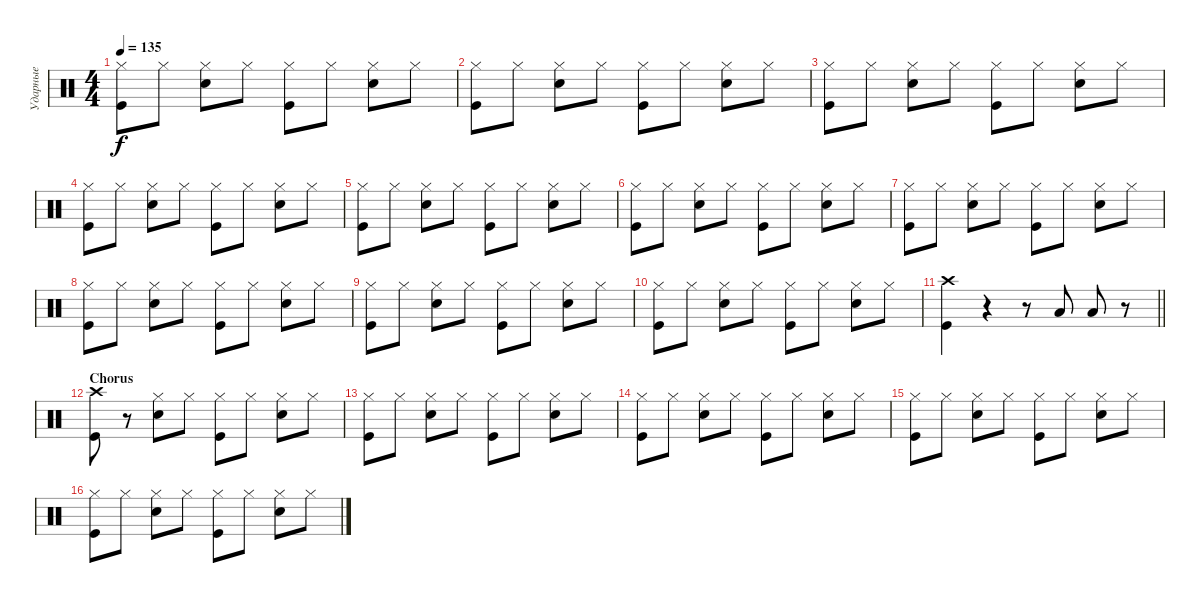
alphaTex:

\track ("Ударные" "Ударные") {instrument percussion}
\staff {score}
\articulation defaults
\ts (4 4)
\tempo 135
\clef neutral
\ks c
("Hi-Hat (closed)" "Kick (hit)").8{dy f} "Hi-Hat (closed)".8 ("Hi-Hat (closed)" "Snare (hit) 2").8 "Hi-Hat (closed)".8 ("Hi-Hat (closed)" "Kick (hit)").8 "Hi-Hat (closed)".8 ("Hi-Hat (closed)" "Snare (hit) 2").8 "Hi-Hat (closed)".8 |
("Hi-Hat (closed)" "Kick (hit)").8 "Hi-Hat (closed)".8 ("Hi-Hat (closed)" "Snare (hit) 2").8 "Hi-Hat (closed)".8 ("Hi-Hat (closed)" "Kick (hit)").8 "Hi-Hat (closed)".8 ("Hi-Hat (closed)" "Snare (hit) 2").8 "Hi-Hat (closed)".8 |
("Hi-Hat (closed)" "Kick (hit)").8 "Hi-Hat (closed)".8 ("Hi-Hat (closed)" "Snare (hit) 2").8 "Hi-Hat (closed)".8 ("Hi-Hat (closed)" "Kick (hit)").8 "Hi-Hat (closed)".8 ("Hi-Hat (closed)" "Snare (hit) 2").8 "Hi-Hat (closed)".8 |
("Hi-Hat (closed)" "Kick (hit)").8 "Hi-Hat (closed)".8 ("Hi-Hat (closed)" "Snare (hit) 2").8 "Hi-Hat (closed)".8 ("Hi-Hat (closed)" "Kick (hit)").8 "Hi-Hat (closed)".8 ("Hi-Hat (closed)" "Snare (hit) 2").8 "Hi-Hat (closed)".8 |
("Hi-Hat (closed)" "Kick (hit)").8 "Hi-Hat (closed)".8 ("Hi-Hat (closed)" "Snare (hit) 2").8 "Hi-Hat (closed)".8 ("Hi-Hat (closed)" "Kick (hit)").8 "Hi-Hat (closed)".8 ("Hi-Hat (closed)" "Snare (hit) 2").8 "Hi-Hat (closed)".8 |
("Hi-Hat (closed)" "Kick (hit)").8 "Hi-Hat (closed)".8 ("Hi-Hat (closed)" "Snare (hit) 2").8 "Hi-Hat (closed)".8 ("Hi-Hat (closed)" "Kick (hit)").8 "Hi-Hat (closed)".8 ("Hi-Hat (closed)" "Snare (hit) 2").8 "Hi-Hat (closed)".8 |
("Hi-Hat (closed)" "Kick (hit)").8 "Hi-Hat (closed)".8 ("Hi-Hat (closed)" "Snare (hit) 2").8 "Hi-Hat (closed)".8 ("Hi-Hat (closed)" "Kick (hit)").8 "Hi-Hat (closed)".8 ("Hi-Hat (closed)" "Snare (hit) 2").8 "Hi-Hat (closed)".8 |
("Hi-Hat (closed)" "Kick (hit)").8 "Hi-Hat (closed)".8 ("Hi-Hat (closed)" "Snare (hit) 2").8 "Hi-Hat (closed)".8 ("Hi-Hat (closed)" "Kick (hit)").8 "Hi-Hat (closed)".8 ("Hi-Hat (closed)" "Snare (hit) 2").8 "Hi-Hat (closed)".8 |
("Hi-Hat (closed)" "Kick (hit)").8 "Hi-Hat (closed)".8 ("Hi-Hat (closed)" "Snare (hit) 2").8 "Hi-Hat (closed)".8 ("Hi-Hat (closed)" "Kick (hit)").8 "Hi-Hat (closed)".8 ("Hi-Hat (closed)" "Snare (hit) 2").8 "Hi-Hat (closed)".8 |
("Hi-Hat (closed)" "Kick (hit)").8 "Hi-Hat (closed)".8 ("Hi-Hat (closed)" "Snare (hit) 2").8 "Hi-Hat (closed)".8 ("Hi-Hat (closed)" "Kick (hit)").8 "Hi-Hat (closed)".8 ("Hi-Hat (closed)" "Snare (hit) 2").8 "Hi-Hat (closed)".8 |
\barLineRight lightlight
("Kick (hit)" "Crash high (hit)").4 r.4 r.8 "Low Tom (hit)".8 "Low Tom (hit)".8 r.8 |
\section ("" "Chorus")
("Crash high (hit)" "Kick (hit)").8 r.8 ("Hi-Hat (closed)" "Snare (hit) 2").8 "Hi-Hat (closed)".8 ("Hi-Hat (closed)" "Kick (hit)").8 "Hi-Hat (closed)".8 ("Hi-Hat (closed)" "Snare (hit) 2").8 "Hi-Hat (closed)".8 |
("Hi-Hat (closed)" "Kick (hit)").8 "Hi-Hat (closed)".8 ("Hi-Hat (closed)" "Snare (hit) 2").8 "Hi-Hat (closed)".8 ("Hi-Hat (closed)" "Kick (hit)").8 "Hi-Hat (closed)".8 ("Hi-Hat (closed)" "Snare (hit) 2").8 "Hi-Hat (closed)".8 |
("Hi-Hat (closed)" "Kick (hit)").8 "Hi-Hat (closed)".8 ("Hi-Hat (closed)" "Snare (hit) 2").8 "Hi-Hat (closed)".8 ("Hi-Hat (closed)" "Kick (hit)").8 "Hi-Hat (closed)".8 ("Hi-Hat (closed)" "Snare (hit) 2").8 "Hi-Hat (closed)".8 |
("Hi-Hat (closed)" "Kick (hit)").8 "Hi-Hat (closed)".8 ("Hi-Hat (closed)" "Snare (hit) 2").8 "Hi-Hat (closed)".8 ("Hi-Hat (closed)" "Kick (hit)").8 "Hi-Hat (closed)".8 ("Hi-Hat (closed)" "Snare (hit) 2").8 "Hi-Hat (closed)".8 |
("Hi-Hat (closed)" "Kick (hit)").8 "Hi-Hat (closed)".8 ("Hi-Hat (closed)" "Snare (hit) 2").8 "Hi-Hat (closed)".8 ("Hi-Hat (closed)" "Kick (hit)").8 "Hi-Hat (closed)".8 ("Hi-Hat (closed)" "Snare (hit) 2").8 "Hi-Hat (closed)".8
